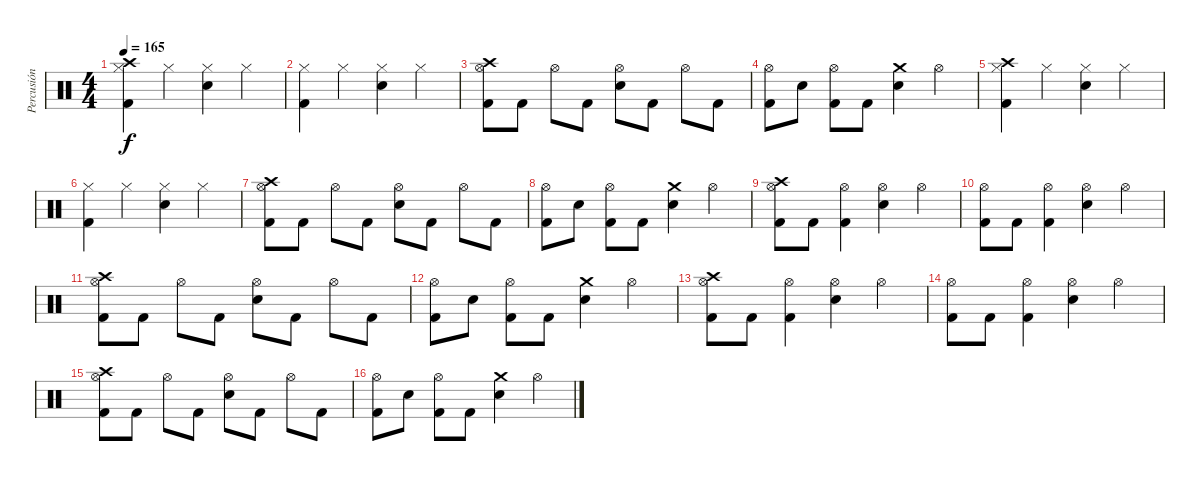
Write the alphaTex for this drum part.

\track ("Percusión" "Percusión") {instrument percussion}
\staff {score}
\articulation defaults
\ts (4 4)
\tempo 165
\clef neutral
\ks c
("Crash high (hit)" "Hi-Hat (closed)" "Kick (hit) 2").4{dy f} "Hi-Hat (closed)".4 ("Hi-Hat (closed)" "Snare (hit) 2").4 "Hi-Hat (closed)".4 |
("Hi-Hat (closed)" "Kick (hit) 2").4 "Hi-Hat (closed)".4 ("Hi-Hat (closed)" "Snare (hit) 2").4 "Hi-Hat (closed)".4 |
("Crash high (hit)" "Hi-Hat (open)" "Kick (hit) 2").8 "Kick (hit) 2".8 "Hi-Hat (open)".8 "Kick (hit) 2".8 ("Hi-Hat (open)" "Snare (hit) 2").8 "Kick (hit) 2".8 "Hi-Hat (open)".8 "Kick (hit) 2".8 |
("Hi-Hat (open)" "Kick (hit) 2").8 "Snare (hit) 2".8 ("Hi-Hat (open)" "Kick (hit) 2").8 "Kick (hit) 2".8 ("Crash medium (hit)" "Snare (hit) 2").4 "Hi-Hat (open)".4 |
("Crash high (hit)" "Hi-Hat (closed)" "Kick (hit) 2").4 "Hi-Hat (closed)".4 ("Hi-Hat (closed)" "Snare (hit) 2").4 "Hi-Hat (closed)".4 |
("Hi-Hat (closed)" "Kick (hit) 2").4 "Hi-Hat (closed)".4 ("Hi-Hat (closed)" "Snare (hit) 2").4 "Hi-Hat (closed)".4 |
("Crash high (hit)" "Hi-Hat (open)" "Kick (hit) 2").8 "Kick (hit) 2".8 "Hi-Hat (open)".8 "Kick (hit) 2".8 ("Hi-Hat (open)" "Snare (hit) 2").8 "Kick (hit) 2".8 "Hi-Hat (open)".8 "Kick (hit) 2".8 |
("Hi-Hat (open)" "Kick (hit) 2").8 "Snare (hit) 2".8 ("Hi-Hat (open)" "Kick (hit) 2").8 "Kick (hit) 2".8 ("Crash medium (hit)" "Snare (hit) 2").4 "Hi-Hat (open)".4 |
("Crash high (hit)" "Hi-Hat (open)" "Kick (hit) 2").8 "Kick (hit) 2".8 ("Hi-Hat (open)" "Kick (hit) 2").4 ("Hi-Hat (open)" "Snare (hit) 2").4 "Hi-Hat (open)".4 |
("Hi-Hat (open)" "Kick (hit) 2").8 "Kick (hit) 2".8 ("Hi-Hat (open)" "Kick (hit) 2").4 ("Hi-Hat (open)" "Snare (hit) 2").4 "Hi-Hat (open)".4 |
("Crash high (hit)" "Hi-Hat (open)" "Kick (hit) 2").8 "Kick (hit) 2".8 "Hi-Hat (open)".8 "Kick (hit) 2".8 ("Hi-Hat (open)" "Snare (hit) 2").8 "Kick (hit) 2".8 "Hi-Hat (open)".8 "Kick (hit) 2".8 |
("Hi-Hat (open)" "Kick (hit) 2").8 "Snare (hit) 2".8 ("Hi-Hat (open)" "Kick (hit) 2").8 "Kick (hit) 2".8 ("Crash medium (hit)" "Snare (hit) 2").4 "Hi-Hat (open)".4 |
("Crash high (hit)" "Hi-Hat (open)" "Kick (hit) 2").8 "Kick (hit) 2".8 ("Hi-Hat (open)" "Kick (hit) 2").4 ("Hi-Hat (open)" "Snare (hit) 2").4 "Hi-Hat (open)".4 |
("Hi-Hat (open)" "Kick (hit) 2").8 "Kick (hit) 2".8 ("Hi-Hat (open)" "Kick (hit) 2").4 ("Hi-Hat (open)" "Snare (hit) 2").4 "Hi-Hat (open)".4 |
("Crash high (hit)" "Hi-Hat (open)" "Kick (hit) 2").8 "Kick (hit) 2".8 "Hi-Hat (open)".8 "Kick (hit) 2".8 ("Hi-Hat (open)" "Snare (hit) 2").8 "Kick (hit) 2".8 "Hi-Hat (open)".8 "Kick (hit) 2".8 |
("Hi-Hat (open)" "Kick (hit) 2").8 "Snare (hit) 2".8 ("Hi-Hat (open)" "Kick (hit) 2").8 "Kick (hit) 2".8 ("Crash medium (hit)" "Snare (hit) 2").4 "Hi-Hat (open)".4
